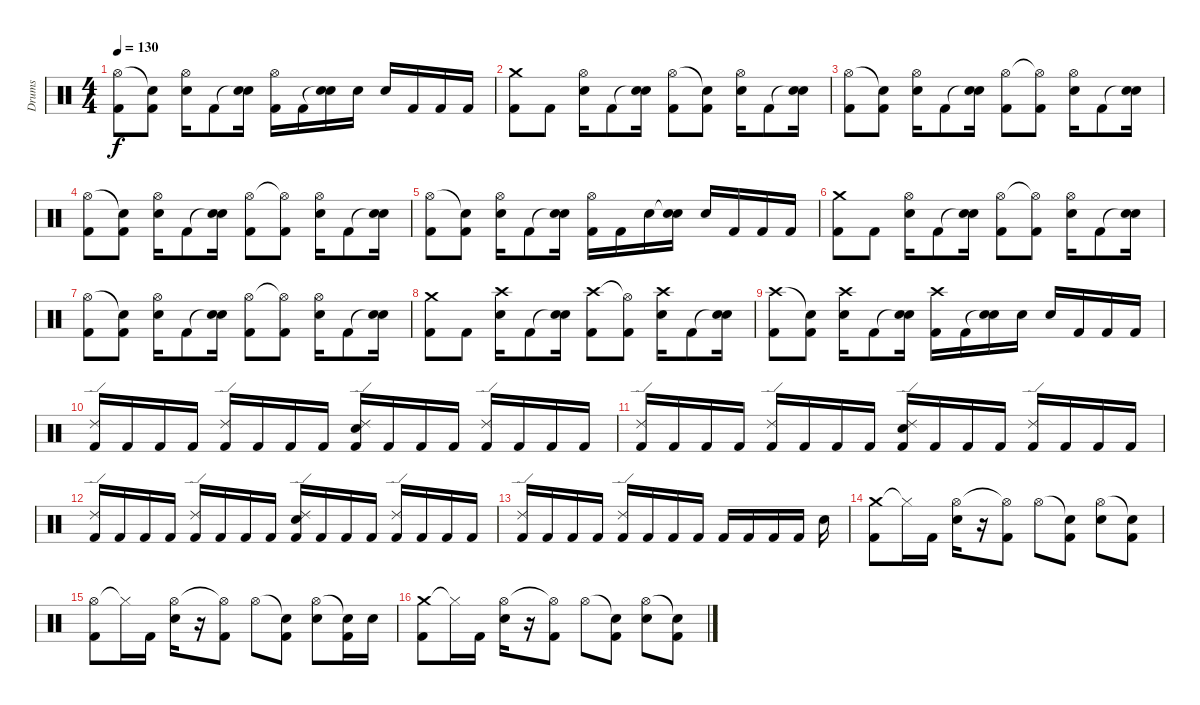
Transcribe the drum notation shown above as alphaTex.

\track ("Drums" "Drums") {instrument percussion}
\staff {score}
\articulation defaults
\ts (4 4)
\tempo 130
\clef neutral
\ks c
("Hi-Hat (open)" "Kick (hit) 2").8{dy f} ("Snare (hit)"{t} "Kick (hit) 2").8 ("Hi-Hat (open)" "Electric Snare (hit)").16 "Kick (hit) 2".8 ("Snare (hit)"{t} "Electric Snare (hit)").16 ("Hi-Hat (open)" "Kick (hit) 2").16 "Kick (hit) 2".16 ("Snare (hit)"{t} "Electric Snare (hit)").16 "Electric Snare (hit)".16 "Electric Snare (hit)".16 "Kick (hit) 2".16 "Kick (hit) 2".16 "Kick (hit) 2".16 |
("Crash medium (hit)" "Kick (hit) 2").8 "Kick (hit) 2".8 ("Hi-Hat (open)" "Electric Snare (hit)").16 "Kick (hit) 2".8 ("Snare (hit)"{t} "Electric Snare (hit)").16 ("Hi-Hat (open)" "Kick (hit) 2").8 ("Snare (hit)"{t} "Kick (hit) 2").8 ("Hi-Hat (open)" "Electric Snare (hit)").16 "Kick (hit) 2".8 ("Snare (hit)"{t} "Electric Snare (hit)").16 |
("Hi-Hat (open)" "Kick (hit) 2").8 ("Snare (hit)"{t} "Kick (hit) 2").8 ("Hi-Hat (open)" "Electric Snare (hit)").16 "Kick (hit) 2".8 ("Snare (hit)"{t} "Electric Snare (hit)").16 ("Hi-Hat (open)" "Kick (hit) 2").8 ("Hi-Hat (open)"{t} "Kick (hit) 2").8 ("Hi-Hat (open)" "Electric Snare (hit)").16 "Kick (hit) 2".8 ("Snare (hit)"{t} "Electric Snare (hit)").16 |
("Hi-Hat (open)" "Kick (hit) 2").8 ("Snare (hit)"{t} "Kick (hit) 2").8 ("Hi-Hat (open)" "Electric Snare (hit)").16 "Kick (hit) 2".8 ("Snare (hit)"{t} "Electric Snare (hit)").16 ("Hi-Hat (open)" "Kick (hit) 2").8 ("Hi-Hat (open)"{t} "Kick (hit) 2").8 ("Hi-Hat (open)" "Electric Snare (hit)").16 "Kick (hit) 2".8 ("Snare (hit)"{t} "Electric Snare (hit)").16 |
("Hi-Hat (open)" "Kick (hit) 2").8 ("Snare (hit)"{t} "Kick (hit) 2").8 ("Hi-Hat (open)" "Electric Snare (hit)").16 "Kick (hit) 2".8 ("Snare (hit)"{t} "Electric Snare (hit)").16 ("Hi-Hat (open)" "Kick (hit) 2").16 "Kick (hit) 2".16 "Electric Snare (hit)".16 ("Snare (hit)"{t} "Electric Snare (hit)").16 "Electric Snare (hit)".16 "Kick (hit) 2".16 "Kick (hit) 2".16 "Kick (hit) 2".16 |
("Crash medium (hit)" "Kick (hit) 2").8 "Kick (hit) 2".8 ("Hi-Hat (open)" "Electric Snare (hit)").16 "Kick (hit) 2".8 ("Snare (hit)"{t} "Electric Snare (hit)").16 ("Hi-Hat (open)" "Kick (hit) 2").8 ("Hi-Hat (open)"{t} "Kick (hit) 2").8 ("Hi-Hat (open)" "Electric Snare (hit)").16 "Kick (hit) 2".8 ("Snare (hit)"{t} "Electric Snare (hit)").16 |
("Hi-Hat (open)" "Kick (hit) 2").8 ("Snare (hit)"{t} "Kick (hit) 2").8 ("Hi-Hat (open)" "Electric Snare (hit)").16 "Kick (hit) 2".8 ("Snare (hit)"{t} "Electric Snare (hit)").16 ("Hi-Hat (open)" "Kick (hit) 2").8 ("Hi-Hat (open)"{t} "Kick (hit) 2").8 ("Hi-Hat (open)" "Electric Snare (hit)").16 "Kick (hit) 2".8 ("Snare (hit)"{t} "Electric Snare (hit)").16 |
("Crash medium (hit)" "Kick (hit) 2").8 "Kick (hit) 2".8 ("Crash high (hit)" "Electric Snare (hit)").16 "Kick (hit) 2".8 ("Snare (hit)"{t} "Electric Snare (hit)").16 ("Crash high (hit)" "Kick (hit) 2").8 ("Hi-Hat (open)"{t} "Kick (hit) 2").8 ("Crash high (hit)" "Electric Snare (hit)").16 "Kick (hit) 2".8 ("Snare (hit)"{t} "Electric Snare (hit)").16 |
("Crash high (hit)" "Kick (hit) 2").8 ("Snare (hit)"{t} "Kick (hit) 2").8 ("Crash high (hit)" "Electric Snare (hit)").16 "Kick (hit) 2".8 ("Snare (hit)"{t} "Electric Snare (hit)").16 ("Crash high (hit)" "Kick (hit) 2").16 "Kick (hit) 2".16 ("Snare (hit)"{t} "Electric Snare (hit)").16 "Electric Snare (hit)".16 "Electric Snare (hit)".16 "Kick (hit) 2".16 "Kick (hit) 2".16 "Kick (hit) 2".16 |
("Ride (edge) 2" "Kick (hit) 2").16 "Kick (hit) 2".16 "Kick (hit) 2".16 "Kick (hit) 2".16 ("Ride (edge) 2" "Kick (hit) 2").16 "Kick (hit) 2".16 "Kick (hit) 2".16 "Kick (hit) 2".16 ("Ride (edge) 2" "Electric Snare (hit)" "Kick (hit) 2").16 "Kick (hit) 2".16 "Kick (hit) 2".16 "Kick (hit) 2".16 ("Ride (edge) 2" "Kick (hit) 2").16 "Kick (hit) 2".16 "Kick (hit) 2".16 "Kick (hit) 2".16 |
("Ride (edge) 2" "Kick (hit) 2").16 "Kick (hit) 2".16 "Kick (hit) 2".16 "Kick (hit) 2".16 ("Ride (edge) 2" "Kick (hit) 2").16 "Kick (hit) 2".16 "Kick (hit) 2".16 "Kick (hit) 2".16 ("Ride (edge) 2" "Electric Snare (hit)" "Kick (hit) 2").16 "Kick (hit) 2".16 "Kick (hit) 2".16 "Kick (hit) 2".16 ("Ride (edge) 2" "Kick (hit) 2").16 "Kick (hit) 2".16 "Kick (hit) 2".16 "Kick (hit) 2".16 |
("Ride (edge) 2" "Kick (hit) 2").16 "Kick (hit) 2".16 "Kick (hit) 2".16 "Kick (hit) 2".16 ("Ride (edge) 2" "Kick (hit) 2").16 "Kick (hit) 2".16 "Kick (hit) 2".16 "Kick (hit) 2".16 ("Ride (edge) 2" "Electric Snare (hit)" "Kick (hit) 2").16 "Kick (hit) 2".16 "Kick (hit) 2".16 "Kick (hit) 2".16 ("Ride (edge) 2" "Kick (hit) 2").16 "Kick (hit) 2".16 "Kick (hit) 2".16 "Kick (hit) 2".16 |
("Ride (edge) 2" "Kick (hit) 2").16 "Kick (hit) 2".16 "Kick (hit) 2".16 "Kick (hit) 2".16 ("Ride (edge) 2" "Kick (hit) 2").16 "Kick (hit) 2".16 "Kick (hit) 2".16 "Kick (hit) 2".16 "Kick (hit) 2".16 "Kick (hit) 2".16 "Kick (hit) 2".16 "Kick (hit) 2".16 "Electric Snare (hit)".16 |
("Crash medium (hit)" "Kick (hit) 2").8 "Hi-Hat (closed)"{t}.16 "Kick (hit) 2".16 ("Hi-Hat (open)" "Electric Snare (hit)").16 r.16 ("Hi-Hat (open)"{t} "Kick (hit) 2").8 "Hi-Hat (open)".8 ("Snare (hit)"{t} "Kick (hit) 2").8 ("Hi-Hat (open)" "Electric Snare (hit)").8 ("Snare (hit)"{t} "Kick (hit) 2").8 |
("Hi-Hat (open)" "Kick (hit) 2").8 "Hi-Hat (closed)"{t}.16 "Kick (hit) 2".16 ("Hi-Hat (open)" "Electric Snare (hit)").16 r.16 ("Hi-Hat (open)"{t} "Kick (hit) 2").8 "Hi-Hat (open)".8 ("Snare (hit)"{t} "Kick (hit) 2").8 ("Hi-Hat (open)" "Electric Snare (hit)").8 ("Snare (hit)"{t} "Kick (hit) 2").16 "Electric Snare (hit)".16 |
("Crash medium (hit)" "Kick (hit) 2").8 "Hi-Hat (closed)"{t}.16 "Kick (hit) 2".16 ("Hi-Hat (open)" "Electric Snare (hit)").16 r.16 ("Hi-Hat (open)"{t} "Kick (hit) 2").8 "Hi-Hat (open)".8 ("Snare (hit)"{t} "Kick (hit) 2").8 ("Hi-Hat (open)" "Electric Snare (hit)").8 ("Snare (hit)"{t} "Kick (hit) 2").8
